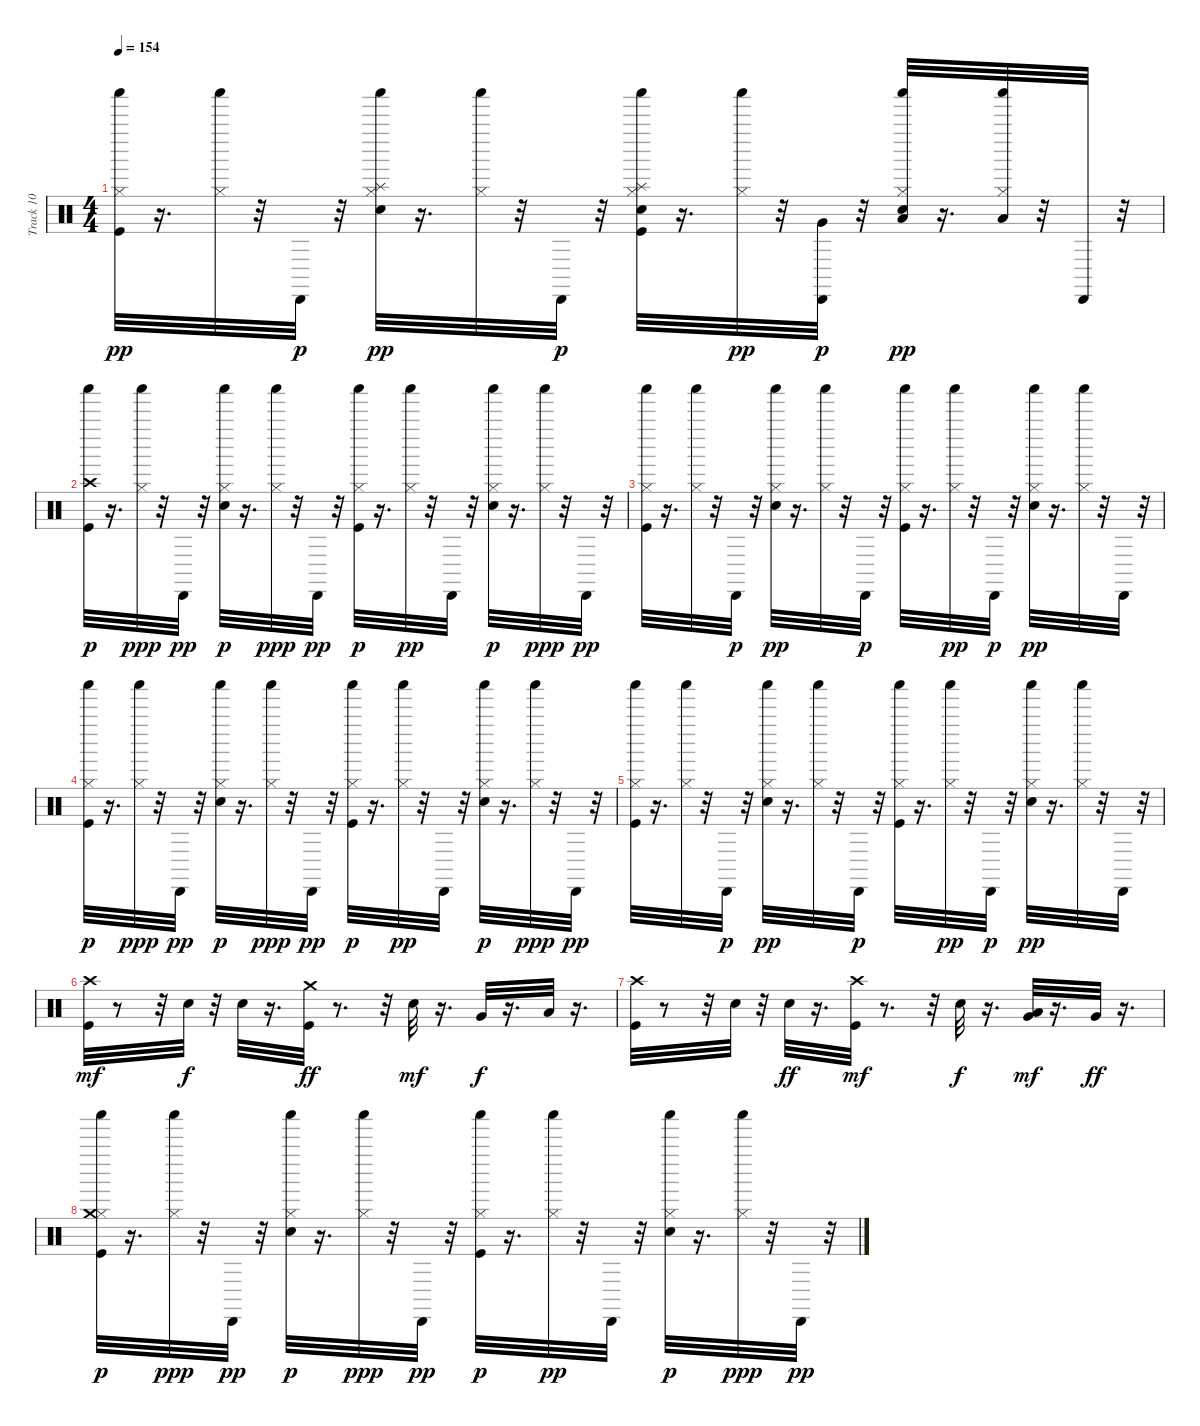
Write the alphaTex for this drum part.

\track ("Track 10" "Track 10") {instrument percussion}
\staff {score}
\articulation defaults
\ts (4 4)
\tempo 154
\clef neutral
\ks c
("Kick (hit)" "Hi-Hat (closed)" "Shaker (hit)").32{dy pp} r.16{d} ("Hi-Hat (closed)" "Shaker (hit)").32 r.32 "Cabasa (hit)".32{dy p} r.32 ("Electric Snare (hit)" "Hi-Hat (closed)" "Splash (hit)" "Shaker (hit)").32{dy pp} r.16{d} ("Hi-Hat (closed)" "Shaker (hit)").32 r.32 "Cabasa (hit)".32{dy p} r.32 ("Kick (hit)" "Electric Snare (hit)" "Hi-Hat (closed)" "Splash (hit)" "Shaker (hit)").32 r.16{d} ("Hi-Hat (closed)" "Shaker (hit)").32{dy pp} r.32 ("Very Low Tom (hit)" "Cabasa (hit)").32{dy p} r.32 ("Electric Snare (hit)" "Hi-Hat (closed)" "Low Tom (hit)" "Shaker (hit)").32{dy pp} r.16{d} ("Low Floor Tom (hit)" "Hi-Hat (closed)" "Shaker (hit)").32 r.32 "Cabasa (hit)".32 r.32 |
("Kick (hit)" "Crash high (hit)" "Shaker (hit)").32{dy p} r.16{d} ("Hi-Hat (closed)" "Shaker (hit)").32{dy ppp} r.32 "Cabasa (hit)".32{dy pp} r.32 ("Electric Snare (hit)" "Hi-Hat (closed)" "Shaker (hit)").32{dy p} r.16{d} ("Hi-Hat (closed)" "Shaker (hit)").32{dy ppp} r.32 "Cabasa (hit)".32{dy pp} r.32 ("Kick (hit)" "Hi-Hat (closed)" "Shaker (hit)").32{dy p} r.16{d} ("Hi-Hat (closed)" "Shaker (hit)").32{dy pp} r.32 "Cabasa (hit)".32 r.32 ("Electric Snare (hit)" "Hi-Hat (closed)" "Shaker (hit)").32{dy p} r.16{d} ("Hi-Hat (closed)" "Shaker (hit)").32{dy ppp} r.32 "Cabasa (hit)".32{dy pp} r.32 |
("Kick (hit)" "Hi-Hat (closed)" "Shaker (hit)").32 r.16{d} ("Hi-Hat (closed)" "Shaker (hit)").32 r.32 "Cabasa (hit)".32{dy p} r.32 ("Electric Snare (hit)" "Hi-Hat (closed)" "Shaker (hit)").32{dy pp} r.16{d} ("Hi-Hat (closed)" "Shaker (hit)").32 r.32 "Cabasa (hit)".32{dy p} r.32 ("Kick (hit)" "Hi-Hat (closed)" "Shaker (hit)").32 r.16{d} ("Hi-Hat (closed)" "Shaker (hit)").32{dy pp} r.32 "Cabasa (hit)".32{dy p} r.32 ("Electric Snare (hit)" "Hi-Hat (closed)" "Shaker (hit)").32{dy pp} r.16{d} ("Hi-Hat (closed)" "Shaker (hit)").32 r.32 "Cabasa (hit)".32 r.32 |
("Kick (hit)" "Hi-Hat (closed)" "Shaker (hit)").32{dy p} r.16{d} ("Hi-Hat (closed)" "Shaker (hit)").32{dy ppp} r.32 "Cabasa (hit)".32{dy pp} r.32 ("Electric Snare (hit)" "Hi-Hat (closed)" "Shaker (hit)").32{dy p} r.16{d} ("Hi-Hat (closed)" "Shaker (hit)").32{dy ppp} r.32 "Cabasa (hit)".32{dy pp} r.32 ("Kick (hit)" "Hi-Hat (closed)" "Shaker (hit)").32{dy p} r.16{d} ("Hi-Hat (closed)" "Shaker (hit)").32{dy pp} r.32 "Cabasa (hit)".32 r.32 ("Electric Snare (hit)" "Hi-Hat (closed)" "Shaker (hit)").32{dy p} r.16{d} ("Hi-Hat (closed)" "Shaker (hit)").32{dy ppp} r.32 "Cabasa (hit)".32{dy pp} r.32 |
("Kick (hit)" "Hi-Hat (closed)" "Shaker (hit)").32 r.16{d} ("Hi-Hat (closed)" "Shaker (hit)").32 r.32 "Cabasa (hit)".32{dy p} r.32 ("Electric Snare (hit)" "Hi-Hat (closed)" "Shaker (hit)").32{dy pp} r.16{d} ("Hi-Hat (closed)" "Shaker (hit)").32 r.32 "Cabasa (hit)".32{dy p} r.32 ("Kick (hit)" "Hi-Hat (closed)" "Shaker (hit)").32 r.16{d} ("Hi-Hat (closed)" "Shaker (hit)").32{dy pp} r.32 "Cabasa (hit)".32{dy p} r.32 ("Electric Snare (hit)" "Hi-Hat (closed)" "Shaker (hit)").32{dy pp} r.16{d} ("Hi-Hat (closed)" "Shaker (hit)").32 r.32 "Cabasa (hit)".32 r.32 |
("Kick (hit)" "Crash high (hit)").32{dy mf} r.8 r.32 "Electric Snare (hit)".32{dy f} r.32 "Electric Snare (hit)".32 r.16{d} ("Kick (hit)" "Crash medium (hit)").32{dy ff} r.8{d} r.32 "Electric Snare (hit)".32{dy mf} r.16{d} "Very Low Tom (hit)".32{dy f} r.16{d} "Low Tom (hit)".32 r.16{d} |
("Kick (hit)" "Crash high (hit)").32 r.8 r.32 "Electric Snare (hit)".32 r.32 "Electric Snare (hit)".32{dy ff} r.16{d} ("Kick (hit)" "Crash high (hit)").32{dy mf} r.8{d} r.32 "Electric Snare (hit)".32{dy f} r.16{d} ("Very Low Tom (hit)" "Low Tom (hit)").32{dy mf} r.16{d} "Very Low Tom (hit)".32{dy ff} r.16{d} |
("Kick (hit)" "Hi-Hat (closed)" "Crash medium (hit)" "Shaker (hit)").32{dy p} r.16{d} ("Hi-Hat (closed)" "Shaker (hit)").32{dy ppp} r.32 "Cabasa (hit)".32{dy pp} r.32 ("Electric Snare (hit)" "Hi-Hat (closed)" "Shaker (hit)").32{dy p} r.16{d} ("Hi-Hat (closed)" "Shaker (hit)").32{dy ppp} r.32 "Cabasa (hit)".32{dy pp} r.32 ("Kick (hit)" "Hi-Hat (closed)" "Shaker (hit)").32{dy p} r.16{d} ("Hi-Hat (closed)" "Shaker (hit)").32{dy pp} r.32 "Cabasa (hit)".32 r.32 ("Electric Snare (hit)" "Hi-Hat (closed)" "Shaker (hit)").32{dy p} r.16{d} ("Hi-Hat (closed)" "Shaker (hit)").32{dy ppp} r.32 "Cabasa (hit)".32{dy pp} r.32
